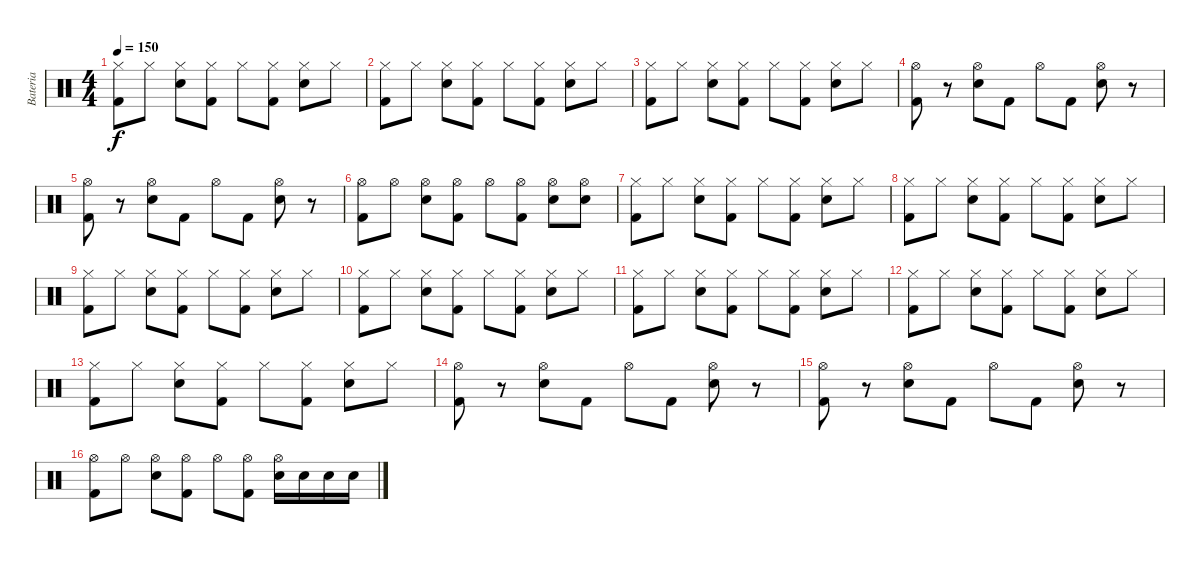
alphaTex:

\track ("Bateria" "Bateria") {instrument percussion}
\staff {score}
\articulation defaults
\ts (4 4)
\tempo 150
\clef neutral
\ks c
("Kick (hit) 2" "Hi-Hat (closed)").8{dy f} "Hi-Hat (closed)".8 ("Electric Snare (hit)" "Hi-Hat (closed)").8 ("Kick (hit) 2" "Hi-Hat (closed)").8 "Hi-Hat (closed)".8 ("Kick (hit) 2" "Hi-Hat (closed)").8 ("Electric Snare (hit)" "Hi-Hat (closed)").8 "Hi-Hat (closed)".8 |
("Kick (hit) 2" "Hi-Hat (closed)").8 "Hi-Hat (closed)".8 ("Electric Snare (hit)" "Hi-Hat (closed)").8 ("Kick (hit) 2" "Hi-Hat (closed)").8 "Hi-Hat (closed)".8 ("Kick (hit) 2" "Hi-Hat (closed)").8 ("Electric Snare (hit)" "Hi-Hat (closed)").8 "Hi-Hat (closed)".8 |
("Kick (hit) 2" "Hi-Hat (closed)").8 "Hi-Hat (closed)".8 ("Electric Snare (hit)" "Hi-Hat (closed)").8 ("Kick (hit) 2" "Hi-Hat (closed)").8 "Hi-Hat (closed)".8 ("Kick (hit) 2" "Hi-Hat (closed)").8 ("Electric Snare (hit)" "Hi-Hat (closed)").8 "Hi-Hat (closed)".8 |
("Kick (hit) 2" "Hi-Hat (open)").8 r.8 ("Electric Snare (hit)" "Hi-Hat (open)").8 "Kick (hit) 2".8 "Hi-Hat (open)".8 "Kick (hit) 2".8 ("Electric Snare (hit)" "Hi-Hat (open)").8 r.8 |
("Kick (hit) 2" "Hi-Hat (open)").8 r.8 ("Electric Snare (hit)" "Hi-Hat (open)").8 "Kick (hit) 2".8 "Hi-Hat (open)".8 "Kick (hit) 2".8 ("Electric Snare (hit)" "Hi-Hat (open)").8 r.8 |
("Kick (hit) 2" "Hi-Hat (open)").8 "Hi-Hat (open)".8 ("Electric Snare (hit)" "Hi-Hat (open)").8 ("Kick (hit) 2" "Hi-Hat (open)").8 "Hi-Hat (open)".8 ("Kick (hit) 2" "Hi-Hat (open)").8 ("Electric Snare (hit)" "Hi-Hat (open)").8 ("Electric Snare (hit)" "Hi-Hat (open)").8 |
("Kick (hit) 2" "Hi-Hat (closed)").8 "Hi-Hat (closed)".8 ("Electric Snare (hit)" "Hi-Hat (closed)").8 ("Kick (hit) 2" "Hi-Hat (closed)").8 "Hi-Hat (closed)".8 ("Kick (hit) 2" "Hi-Hat (closed)").8 ("Electric Snare (hit)" "Hi-Hat (closed)").8 "Hi-Hat (closed)".8 |
("Kick (hit) 2" "Hi-Hat (closed)").8 "Hi-Hat (closed)".8 ("Electric Snare (hit)" "Hi-Hat (closed)").8 ("Kick (hit) 2" "Hi-Hat (closed)").8 "Hi-Hat (closed)".8 ("Kick (hit) 2" "Hi-Hat (closed)").8 ("Electric Snare (hit)" "Hi-Hat (closed)").8 "Hi-Hat (closed)".8 |
("Kick (hit) 2" "Hi-Hat (closed)").8 "Hi-Hat (closed)".8 ("Electric Snare (hit)" "Hi-Hat (closed)").8 ("Kick (hit) 2" "Hi-Hat (closed)").8 "Hi-Hat (closed)".8 ("Kick (hit) 2" "Hi-Hat (closed)").8 ("Electric Snare (hit)" "Hi-Hat (closed)").8 "Hi-Hat (closed)".8 |
("Kick (hit) 2" "Hi-Hat (closed)").8 "Hi-Hat (closed)".8 ("Electric Snare (hit)" "Hi-Hat (closed)").8 ("Kick (hit) 2" "Hi-Hat (closed)").8 "Hi-Hat (closed)".8 ("Kick (hit) 2" "Hi-Hat (closed)").8 ("Electric Snare (hit)" "Hi-Hat (closed)").8 "Hi-Hat (closed)".8 |
("Kick (hit) 2" "Hi-Hat (closed)").8 "Hi-Hat (closed)".8 ("Electric Snare (hit)" "Hi-Hat (closed)").8 ("Kick (hit) 2" "Hi-Hat (closed)").8 "Hi-Hat (closed)".8 ("Kick (hit) 2" "Hi-Hat (closed)").8 ("Electric Snare (hit)" "Hi-Hat (closed)").8 "Hi-Hat (closed)".8 |
("Kick (hit) 2" "Hi-Hat (closed)").8 "Hi-Hat (closed)".8 ("Electric Snare (hit)" "Hi-Hat (closed)").8 ("Kick (hit) 2" "Hi-Hat (closed)").8 "Hi-Hat (closed)".8 ("Kick (hit) 2" "Hi-Hat (closed)").8 ("Electric Snare (hit)" "Hi-Hat (closed)").8 "Hi-Hat (closed)".8 |
("Kick (hit) 2" "Hi-Hat (closed)").8 "Hi-Hat (closed)".8 ("Electric Snare (hit)" "Hi-Hat (closed)").8 ("Kick (hit) 2" "Hi-Hat (closed)").8 "Hi-Hat (closed)".8 ("Kick (hit) 2" "Hi-Hat (closed)").8 ("Electric Snare (hit)" "Hi-Hat (closed)").8 "Hi-Hat (closed)".8 |
("Kick (hit) 2" "Hi-Hat (open)").8 r.8 ("Electric Snare (hit)" "Hi-Hat (open)").8 "Kick (hit) 2".8 "Hi-Hat (open)".8 "Kick (hit) 2".8 ("Electric Snare (hit)" "Hi-Hat (open)").8 r.8 |
("Kick (hit) 2" "Hi-Hat (open)").8 r.8 ("Electric Snare (hit)" "Hi-Hat (open)").8 "Kick (hit) 2".8 "Hi-Hat (open)".8 "Kick (hit) 2".8 ("Electric Snare (hit)" "Hi-Hat (open)").8 r.8 |
("Kick (hit) 2" "Hi-Hat (open)").8 "Hi-Hat (open)".8 ("Electric Snare (hit)" "Hi-Hat (open)").8 ("Kick (hit) 2" "Hi-Hat (open)").8 "Hi-Hat (open)".8 ("Kick (hit) 2" "Hi-Hat (open)").8 ("Electric Snare (hit)" "Hi-Hat (open)").16 "Electric Snare (hit)".16 "Electric Snare (hit)".16 "Electric Snare (hit)".16
